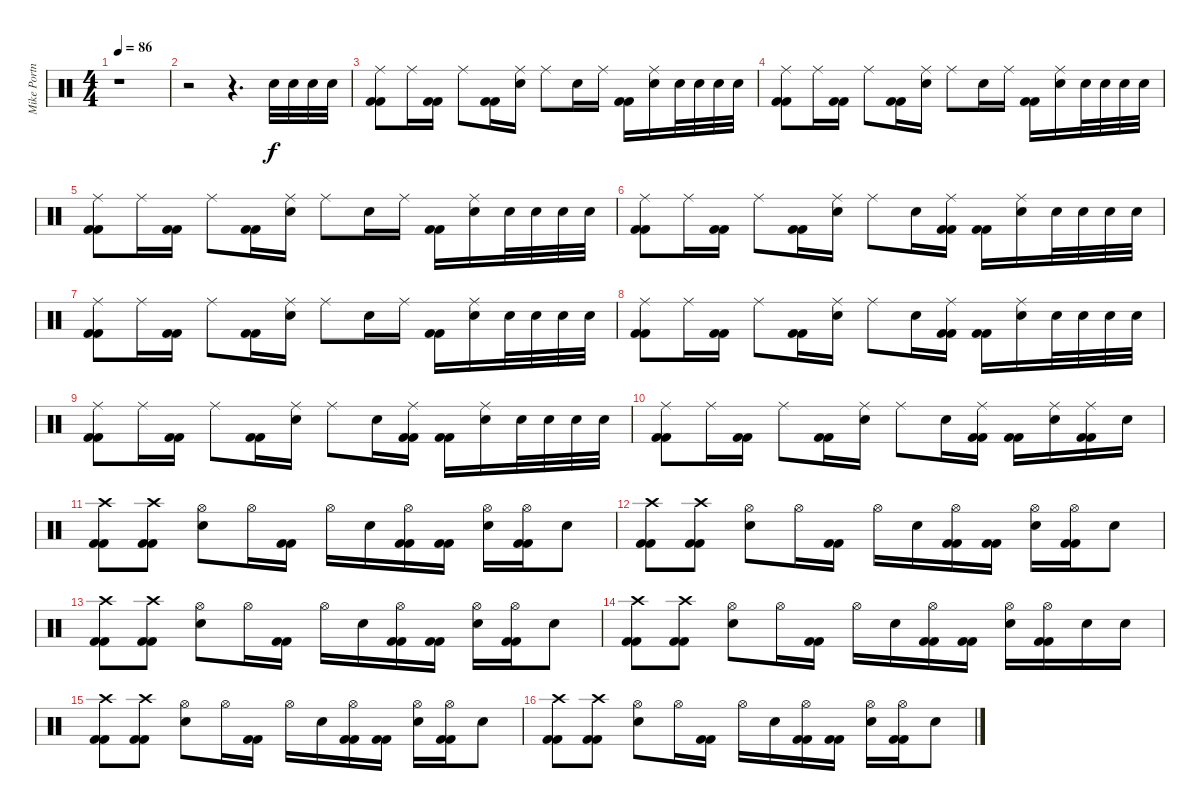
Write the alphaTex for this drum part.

\track ("Mike Portnoy - Drum" "Mike Portn") {instrument percussion}
\staff {score}
\articulation defaults
\ts (4 4)
\tempo 86
\clef neutral
\ks c
r.1{dy f} |
r.2 r.4{d} "Snare (hit) 2".32 "Snare (hit) 2".32 "Snare (hit) 2".32 "Snare (hit) 2".32 |
("Ride (middle)" "Kick (hit) 2" "Kick (hit) 2").8 "Ride (middle)".16 ("Kick (hit) 2" "Kick (hit) 2").16 "Ride (middle)".8 ("Kick (hit) 2" "Kick (hit) 2").16 ("Ride (middle)" "Snare (hit) 2").16 "Ride (middle)".8 "Snare (hit) 2".16 "Ride (middle)".16 ("Kick (hit) 2" "Kick (hit) 2").16 ("Ride (middle)" "Snare (hit) 2").16 "Snare (hit) 2".32 "Snare (hit) 2".32 "Snare (hit) 2".32 "Snare (hit) 2".32 |
("Ride (middle)" "Kick (hit) 2" "Kick (hit) 2").8 "Ride (middle)".16 ("Kick (hit) 2" "Kick (hit) 2").16 "Ride (middle)".8 ("Kick (hit) 2" "Kick (hit) 2").16 ("Ride (middle)" "Snare (hit) 2").16 "Ride (middle)".8 "Snare (hit) 2".16 "Ride (middle)".16 ("Kick (hit) 2" "Kick (hit) 2").16 ("Ride (middle)" "Snare (hit) 2").16 "Snare (hit) 2".32 "Snare (hit) 2".32 "Snare (hit) 2".32 "Snare (hit) 2".32 |
("Ride (middle)" "Kick (hit) 2" "Kick (hit) 2").8 "Ride (middle)".16 ("Kick (hit) 2" "Kick (hit) 2").16 "Ride (middle)".8 ("Kick (hit) 2" "Kick (hit) 2").16 ("Ride (middle)" "Snare (hit) 2").16 "Ride (middle)".8 "Snare (hit) 2".16 "Ride (middle)".16 ("Kick (hit) 2" "Kick (hit) 2").16 ("Ride (middle)" "Snare (hit) 2").16 "Snare (hit) 2".32 "Snare (hit) 2".32 "Snare (hit) 2".32 "Snare (hit) 2".32 |
("Ride (middle)" "Kick (hit) 2" "Kick (hit) 2").8 "Ride (middle)".16 ("Kick (hit) 2" "Kick (hit) 2").16 "Ride (middle)".8 ("Kick (hit) 2" "Kick (hit) 2").16 ("Ride (middle)" "Snare (hit) 2").16 "Ride (middle)".8 "Snare (hit) 2".16 ("Ride (middle)" "Kick (hit) 2" "Kick (hit) 2").16 ("Kick (hit) 2" "Kick (hit) 2").16 ("Ride (middle)" "Snare (hit) 2").16 "Snare (hit) 2".32 "Snare (hit) 2".32 "Snare (hit) 2".32 "Snare (hit) 2".32 |
("Ride (middle)" "Kick (hit) 2" "Kick (hit) 2").8 "Ride (middle)".16 ("Kick (hit) 2" "Kick (hit) 2").16 "Ride (middle)".8 ("Kick (hit) 2" "Kick (hit) 2").16 ("Ride (middle)" "Snare (hit) 2").16 "Ride (middle)".8 "Snare (hit) 2".16 "Ride (middle)".16 ("Kick (hit) 2" "Kick (hit) 2").16 ("Ride (middle)" "Snare (hit) 2").16 "Snare (hit) 2".32 "Snare (hit) 2".32 "Snare (hit) 2".32 "Snare (hit) 2".32 |
("Ride (middle)" "Kick (hit) 2" "Kick (hit) 2").8 "Ride (middle)".16 ("Kick (hit) 2" "Kick (hit) 2").16 "Ride (middle)".8 ("Kick (hit) 2" "Kick (hit) 2").16 ("Ride (middle)" "Snare (hit) 2").16 "Ride (middle)".8 "Snare (hit) 2".16 ("Ride (middle)" "Kick (hit) 2" "Kick (hit) 2").16 ("Kick (hit) 2" "Kick (hit) 2").16 ("Ride (middle)" "Snare (hit) 2").16 "Snare (hit) 2".32 "Snare (hit) 2".32 "Snare (hit) 2".32 "Snare (hit) 2".32 |
("Ride (middle)" "Kick (hit) 2" "Kick (hit) 2").8 "Ride (middle)".16 ("Kick (hit) 2" "Kick (hit) 2").16 "Ride (middle)".8 ("Kick (hit) 2" "Kick (hit) 2").16 ("Ride (middle)" "Snare (hit) 2").16 "Ride (middle)".8 "Snare (hit) 2".16 ("Ride (middle)" "Kick (hit) 2" "Kick (hit) 2").16 ("Kick (hit) 2" "Kick (hit) 2").16 ("Ride (middle)" "Snare (hit) 2").16 "Snare (hit) 2".32 "Snare (hit) 2".32 "Snare (hit) 2".32 "Snare (hit) 2".32 |
("Ride (middle)" "Kick (hit) 2" "Kick (hit) 2").8 "Ride (middle)".16 ("Kick (hit) 2" "Kick (hit) 2").16 "Ride (middle)".8 ("Kick (hit) 2" "Kick (hit) 2").16 ("Ride (middle)" "Snare (hit) 2").16 "Ride (middle)".8 "Snare (hit) 2".16 ("Ride (middle)" "Kick (hit) 2" "Kick (hit) 2").16 ("Kick (hit) 2" "Kick (hit) 2").16 ("Ride (middle)" "Snare (hit) 2").16 ("Ride (middle)" "Kick (hit) 2" "Kick (hit) 2").16 "Snare (hit) 2".16 |
("Crash high (hit)" "Kick (hit) 2" "Kick (hit) 2").8 ("Crash high (hit)" "Kick (hit) 2" "Kick (hit) 2").8 ("Hi-Hat (open)" "Snare (hit) 2").8 "Hi-Hat (open)".16 ("Kick (hit) 2" "Kick (hit) 2").16 "Hi-Hat (open)".16 "Snare (hit) 2".16 ("Hi-Hat (open)" "Kick (hit) 2" "Kick (hit) 2").16 ("Kick (hit) 2" "Kick (hit) 2").16 ("Hi-Hat (open)" "Snare (hit) 2").16 ("Hi-Hat (open)" "Kick (hit) 2" "Kick (hit) 2").16 "Snare (hit) 2".8 |
("Crash high (hit)" "Kick (hit) 2" "Kick (hit) 2").8 ("Crash high (hit)" "Kick (hit) 2" "Kick (hit) 2").8 ("Hi-Hat (open)" "Snare (hit) 2").8 "Hi-Hat (open)".16 ("Kick (hit) 2" "Kick (hit) 2").16 "Hi-Hat (open)".16 "Snare (hit) 2".16 ("Hi-Hat (open)" "Kick (hit) 2" "Kick (hit) 2").16 ("Kick (hit) 2" "Kick (hit) 2").16 ("Hi-Hat (open)" "Snare (hit) 2").16 ("Hi-Hat (open)" "Kick (hit) 2" "Kick (hit) 2").16 "Snare (hit) 2".8 |
("Crash high (hit)" "Kick (hit) 2" "Kick (hit) 2").8 ("Crash high (hit)" "Kick (hit) 2" "Kick (hit) 2").8 ("Hi-Hat (open)" "Snare (hit) 2").8 "Hi-Hat (open)".16 ("Kick (hit) 2" "Kick (hit) 2").16 "Hi-Hat (open)".16 "Snare (hit) 2".16 ("Hi-Hat (open)" "Kick (hit) 2" "Kick (hit) 2").16 ("Kick (hit) 2" "Kick (hit) 2").16 ("Hi-Hat (open)" "Snare (hit) 2").16 ("Hi-Hat (open)" "Kick (hit) 2" "Kick (hit) 2").16 "Snare (hit) 2".8 |
("Crash high (hit)" "Kick (hit) 2" "Kick (hit) 2").8 ("Crash high (hit)" "Kick (hit) 2" "Kick (hit) 2").8 ("Hi-Hat (open)" "Snare (hit) 2").8 "Hi-Hat (open)".16 ("Kick (hit) 2" "Kick (hit) 2").16 "Hi-Hat (open)".16 "Snare (hit) 2".16 ("Hi-Hat (open)" "Kick (hit) 2" "Kick (hit) 2").16 ("Kick (hit) 2" "Kick (hit) 2").16 ("Hi-Hat (open)" "Snare (hit) 2").16 ("Hi-Hat (open)" "Kick (hit) 2" "Kick (hit) 2").16 "Snare (hit) 2".16 "Snare (hit) 2".16 |
("Crash high (hit)" "Kick (hit) 2" "Kick (hit) 2").8 ("Crash high (hit)" "Kick (hit) 2" "Kick (hit) 2").8 ("Hi-Hat (open)" "Snare (hit) 2").8 "Hi-Hat (open)".16 ("Kick (hit) 2" "Kick (hit) 2").16 "Hi-Hat (open)".16 "Snare (hit) 2".16 ("Hi-Hat (open)" "Kick (hit) 2" "Kick (hit) 2").16 ("Kick (hit) 2" "Kick (hit) 2").16 ("Hi-Hat (open)" "Snare (hit) 2").16 ("Hi-Hat (open)" "Kick (hit) 2" "Kick (hit) 2").16 "Snare (hit) 2".8 |
("Crash high (hit)" "Kick (hit) 2" "Kick (hit) 2").8 ("Crash high (hit)" "Kick (hit) 2" "Kick (hit) 2").8 ("Hi-Hat (open)" "Snare (hit) 2").8 "Hi-Hat (open)".16 ("Kick (hit) 2" "Kick (hit) 2").16 "Hi-Hat (open)".16 "Snare (hit) 2".16 ("Hi-Hat (open)" "Kick (hit) 2" "Kick (hit) 2").16 ("Kick (hit) 2" "Kick (hit) 2").16 ("Hi-Hat (open)" "Snare (hit) 2").16 ("Hi-Hat (open)" "Kick (hit) 2" "Kick (hit) 2").16 "Snare (hit) 2".8
